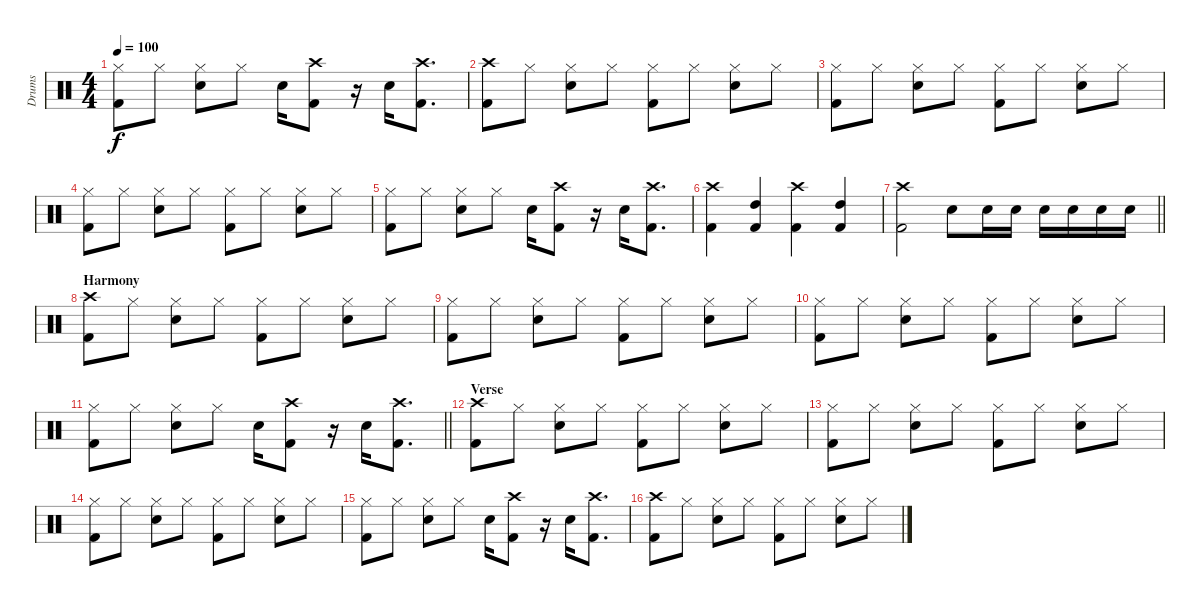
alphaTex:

\track ("Drums" "Drums") {instrument percussion}
\staff {score}
\articulation defaults
\ts (4 4)
\tempo 100
\clef neutral
\ks c
("Hi-Hat (closed)" "Kick (hit) 2").8{dy f} "Hi-Hat (closed)".8 ("Hi-Hat (closed)" "Snare (hit) 2").8 "Hi-Hat (closed)".8 "Snare (hit) 2".16 ("Crash high (hit)" "Kick (hit) 2").8 r.16 "Snare (hit) 2".16 ("Crash high (hit)" "Kick (hit) 2").8{d} |
("Crash high (hit)" "Kick (hit) 2").8 "Hi-Hat (closed)".8 ("Hi-Hat (closed)" "Snare (hit) 2").8 "Hi-Hat (closed)".8 ("Hi-Hat (closed)" "Kick (hit) 2").8 "Hi-Hat (closed)".8 ("Hi-Hat (closed)" "Snare (hit) 2").8 "Hi-Hat (closed)".8 |
("Hi-Hat (closed)" "Kick (hit) 2").8 "Hi-Hat (closed)".8 ("Hi-Hat (closed)" "Snare (hit) 2").8 "Hi-Hat (closed)".8 ("Hi-Hat (closed)" "Kick (hit) 2").8 "Hi-Hat (closed)".8 ("Hi-Hat (closed)" "Snare (hit) 2").8 "Hi-Hat (closed)".8 |
("Hi-Hat (closed)" "Kick (hit) 2").8 "Hi-Hat (closed)".8 ("Hi-Hat (closed)" "Snare (hit) 2").8 "Hi-Hat (closed)".8 ("Hi-Hat (closed)" "Kick (hit) 2").8 "Hi-Hat (closed)".8 ("Hi-Hat (closed)" "Snare (hit) 2").8 "Hi-Hat (closed)".8 |
("Hi-Hat (closed)" "Kick (hit) 2").8 "Hi-Hat (closed)".8 ("Hi-Hat (closed)" "Snare (hit) 2").8 "Hi-Hat (closed)".8 "Snare (hit) 2".16 ("Crash high (hit)" "Kick (hit) 2").8 r.16 "Snare (hit) 2".16 ("Crash high (hit)" "Kick (hit) 2").8{d} |
("Crash high (hit)" "Kick (hit) 2").4 ("Kick (hit) 2" "High Tom (hit)").4 ("Crash high (hit)" "Kick (hit) 2").4 ("Kick (hit) 2" "High Tom (hit)").4 |
\barLineRight lightlight
("Crash high (hit)" "Kick (hit) 2").2 "Snare (hit) 2".8 "Snare (hit) 2".16 "Snare (hit) 2".16 "Snare (hit) 2".16 "Snare (hit) 2".16 "Snare (hit) 2".16 "Snare (hit) 2".16 |
\section ("" "Harmony")
("Crash high (hit)" "Kick (hit) 2").8 "Hi-Hat (closed)".8 ("Hi-Hat (closed)" "Snare (hit) 2").8 "Hi-Hat (closed)".8 ("Hi-Hat (closed)" "Kick (hit) 2").8 "Hi-Hat (closed)".8 ("Hi-Hat (closed)" "Snare (hit) 2").8 "Hi-Hat (closed)".8 |
("Hi-Hat (closed)" "Kick (hit) 2").8 "Hi-Hat (closed)".8 ("Hi-Hat (closed)" "Snare (hit) 2").8 "Hi-Hat (closed)".8 ("Hi-Hat (closed)" "Kick (hit) 2").8 "Hi-Hat (closed)".8 ("Hi-Hat (closed)" "Snare (hit) 2").8 "Hi-Hat (closed)".8 |
("Hi-Hat (closed)" "Kick (hit) 2").8 "Hi-Hat (closed)".8 ("Hi-Hat (closed)" "Snare (hit) 2").8 "Hi-Hat (closed)".8 ("Hi-Hat (closed)" "Kick (hit) 2").8 "Hi-Hat (closed)".8 ("Hi-Hat (closed)" "Snare (hit) 2").8 "Hi-Hat (closed)".8 |
\barLineRight lightlight
("Hi-Hat (closed)" "Kick (hit) 2").8 "Hi-Hat (closed)".8 ("Hi-Hat (closed)" "Snare (hit) 2").8 "Hi-Hat (closed)".8 "Snare (hit) 2".16 ("Crash high (hit)" "Kick (hit) 2").8 r.16 "Snare (hit) 2".16 ("Crash high (hit)" "Kick (hit) 2").8{d} |
\section ("" "Verse")
("Crash high (hit)" "Kick (hit) 2").8 "Hi-Hat (closed)".8 ("Hi-Hat (closed)" "Snare (hit) 2").8 "Hi-Hat (closed)".8 ("Hi-Hat (closed)" "Kick (hit) 2").8 "Hi-Hat (closed)".8 ("Hi-Hat (closed)" "Snare (hit) 2").8 "Hi-Hat (closed)".8 |
("Hi-Hat (closed)" "Kick (hit) 2").8 "Hi-Hat (closed)".8 ("Hi-Hat (closed)" "Snare (hit) 2").8 "Hi-Hat (closed)".8 ("Hi-Hat (closed)" "Kick (hit) 2").8 "Hi-Hat (closed)".8 ("Hi-Hat (closed)" "Snare (hit) 2").8 "Hi-Hat (closed)".8 |
("Hi-Hat (closed)" "Kick (hit) 2").8 "Hi-Hat (closed)".8 ("Hi-Hat (closed)" "Snare (hit) 2").8 "Hi-Hat (closed)".8 ("Hi-Hat (closed)" "Kick (hit) 2").8 "Hi-Hat (closed)".8 ("Hi-Hat (closed)" "Snare (hit) 2").8 "Hi-Hat (closed)".8 |
("Hi-Hat (closed)" "Kick (hit) 2").8 "Hi-Hat (closed)".8 ("Hi-Hat (closed)" "Snare (hit) 2").8 "Hi-Hat (closed)".8 "Snare (hit) 2".16 ("Crash high (hit)" "Kick (hit) 2").8 r.16 "Snare (hit) 2".16 ("Crash high (hit)" "Kick (hit) 2").8{d} |
("Crash high (hit)" "Kick (hit) 2").8 "Hi-Hat (closed)".8 ("Hi-Hat (closed)" "Snare (hit) 2").8 "Hi-Hat (closed)".8 ("Hi-Hat (closed)" "Kick (hit) 2").8 "Hi-Hat (closed)".8 ("Hi-Hat (closed)" "Snare (hit) 2").8 "Hi-Hat (closed)".8
